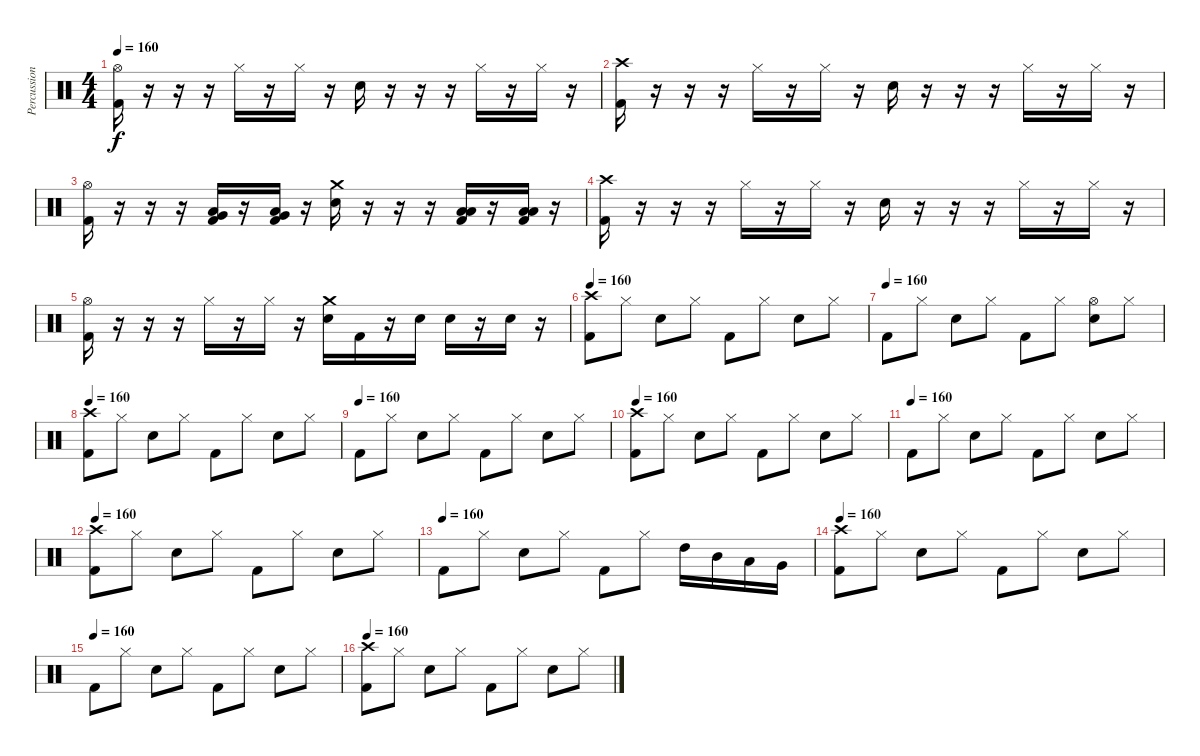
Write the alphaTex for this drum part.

\track ("Percussion" "Percussion") {instrument percussion}
\staff {score}
\articulation defaults
\ts (4 4)
\tempo 160
\clef neutral
\ks c
("Hi-Hat (open)" "Kick (hit) 2").16{dy f} r.16 r.16 r.16 "Hi-Hat (closed)".16 r.16 "Hi-Hat (closed)".16 r.16 "Snare (hit) 2".16 r.16 r.16 r.16 "Hi-Hat (closed)".16 r.16 "Hi-Hat (closed)".16 r.16 |
("Crash high (hit)" "Kick (hit) 2").16 r.16 r.16 r.16 "Hi-Hat (closed)".16 r.16 "Hi-Hat (closed)".16 r.16 "Snare (hit) 2".16 r.16 r.16 r.16 "Hi-Hat (closed)".16 r.16 "Hi-Hat (closed)".16 r.16 |
("Hi-Hat (open)" "Kick (hit) 2").16 r.16 r.16 r.16 ("Very Low Tom (hit)" "Low Floor Tom (hit)" "Kick (hit) 2").16 r.16 ("Very Low Tom (hit)" "Low Floor Tom (hit)" "Kick (hit) 2").16 r.16 ("Crash medium (hit)" "Snare (hit) 2").16 r.16 r.16 r.16 ("Low Tom (hit)" "Low Tom (hit)" "Kick (hit) 2").16 r.16 ("Low Tom (hit)" "Low Tom (hit)" "Kick (hit) 2").16 r.16 |
("Crash high (hit)" "Kick (hit) 2").16 r.16 r.16 r.16 "Hi-Hat (closed)".16 r.16 "Hi-Hat (closed)".16 r.16 "Snare (hit) 2".16 r.16 r.16 r.16 "Hi-Hat (closed)".16 r.16 "Hi-Hat (closed)".16 r.16 |
("Hi-Hat (open)" "Kick (hit) 2").16 r.16 r.16 r.16 "Hi-Hat (closed)".16 r.16 "Hi-Hat (closed)".16 r.16 ("Crash medium (hit)" "Snare (hit) 2").16 "Kick (hit) 2".16 r.16 "Snare (hit) 2".16 "Snare (hit) 2".16 r.16 "Snare (hit) 2".16 r.16 |
\tempo 160
("Crash high (hit)" "Kick (hit) 2").8 "Hi-Hat (closed)".8 "Snare (hit) 2".8 "Hi-Hat (closed)".8 "Kick (hit) 2".8 "Hi-Hat (closed)".8 "Snare (hit) 2".8 "Hi-Hat (closed)".8 |
\tempo (160)
"Kick (hit) 2".8 "Hi-Hat (closed)".8 "Snare (hit) 2".8 "Hi-Hat (closed)".8 "Kick (hit) 2".8 "Hi-Hat (closed)".8 ("Hi-Hat (open)" "Snare (hit) 2").8 "Hi-Hat (closed)".8 |
\tempo 160
("Crash high (hit)" "Kick (hit) 2").8 "Hi-Hat (closed)".8 "Snare (hit) 2".8 "Hi-Hat (closed)".8 "Kick (hit) 2".8 "Hi-Hat (closed)".8 "Snare (hit) 2".8 "Hi-Hat (closed)".8 |
\tempo (160)
"Kick (hit) 2".8 "Hi-Hat (closed)".8 "Snare (hit) 2".8 "Hi-Hat (closed)".8 "Kick (hit) 2".8 "Hi-Hat (closed)".8 "Snare (hit) 2".8 "Hi-Hat (closed)".8 |
\tempo 160
("Crash high (hit)" "Kick (hit) 2").8 "Hi-Hat (closed)".8 "Snare (hit) 2".8 "Hi-Hat (closed)".8 "Kick (hit) 2".8 "Hi-Hat (closed)".8 "Snare (hit) 2".8 "Hi-Hat (closed)".8 |
\tempo (160)
"Kick (hit) 2".8 "Hi-Hat (closed)".8 "Snare (hit) 2".8 "Hi-Hat (closed)".8 "Kick (hit) 2".8 "Hi-Hat (closed)".8 "Snare (hit) 2".8 "Hi-Hat (closed)".8 |
\tempo 160
("Crash high (hit)" "Kick (hit) 2").8 "Hi-Hat (closed)".8 "Snare (hit) 2".8 "Hi-Hat (closed)".8 "Kick (hit) 2".8 "Hi-Hat (closed)".8 "Snare (hit) 2".8 "Hi-Hat (closed)".8 |
\tempo (160)
"Kick (hit) 2".8 "Hi-Hat (closed)".8 "Snare (hit) 2".8 "Hi-Hat (closed)".8 "Kick (hit) 2".8 "Hi-Hat (closed)".8 "High Tom (hit)".16 "Mid Tom (hit)".16 "Low Tom (hit)".16 "Very Low Tom (hit)".16 |
\tempo 160
("Crash high (hit)" "Kick (hit) 2").8 "Hi-Hat (closed)".8 "Snare (hit) 2".8 "Hi-Hat (closed)".8 "Kick (hit) 2".8 "Hi-Hat (closed)".8 "Snare (hit) 2".8 "Hi-Hat (closed)".8 |
\tempo (160)
"Kick (hit) 2".8 "Hi-Hat (closed)".8 "Snare (hit) 2".8 "Hi-Hat (closed)".8 "Kick (hit) 2".8 "Hi-Hat (closed)".8 "Snare (hit) 2".8 "Hi-Hat (closed)".8 |
\tempo 160
("Crash high (hit)" "Kick (hit) 2").8 "Hi-Hat (closed)".8 "Snare (hit) 2".8 "Hi-Hat (closed)".8 "Kick (hit) 2".8 "Hi-Hat (closed)".8 "Snare (hit) 2".8 "Hi-Hat (closed)".8
